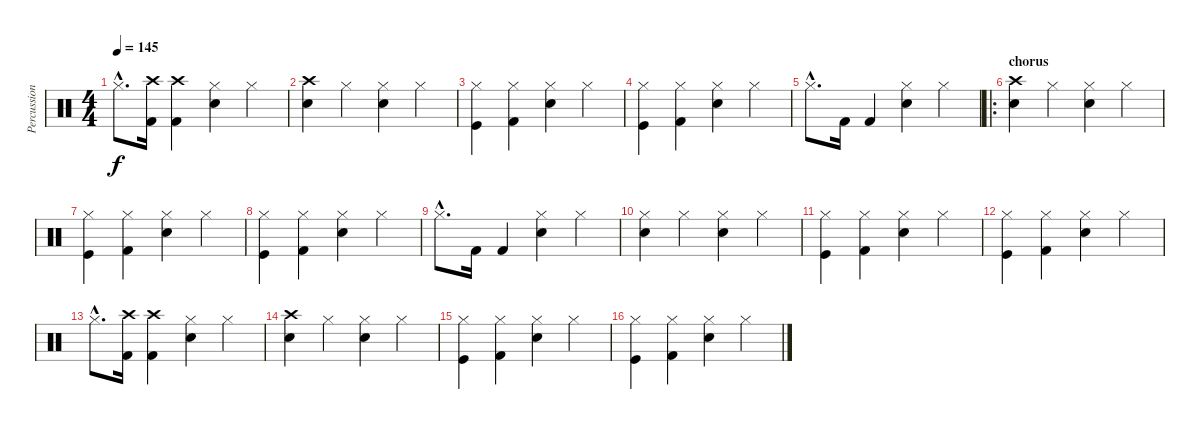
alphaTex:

\track ("Percussion" "Percussion") {instrument percussion}
\staff {score}
\articulation defaults
\ts (4 4)
\tempo 145
\clef neutral
\ks c "Hi-Hat (closed)"{hac}.8{d dy f}
("Crash high (hit)" "Kick (hit) 2").16 ("Crash high (hit)" "Kick (hit) 2").4 ("Hi-Hat (closed)" "Snare (hit) 2").4 "Hi-Hat (closed)".4 |
("Crash high (hit)" "Snare (hit) 2").4 "Hi-Hat (closed)".4 ("Hi-Hat (closed)" "Snare (hit) 2").4 "Hi-Hat (closed)".4 |
("Hi-Hat (closed)" "Kick (hit)").4 ("Hi-Hat (closed)" "Kick (hit) 2").4 ("Hi-Hat (closed)" "Snare (hit) 2").4 "Hi-Hat (closed)".4 |
("Hi-Hat (closed)" "Kick (hit)").4 ("Hi-Hat (closed)" "Kick (hit) 2").4 ("Hi-Hat (closed)" "Snare (hit) 2").4 "Hi-Hat (closed)".4 |
"Hi-Hat (closed)"{hac}.8{d} "Kick (hit) 2".16 "Kick (hit) 2".4 ("Hi-Hat (closed)" "Snare (hit) 2").4 "Hi-Hat (closed)".4 |
\ro
\section ("" "chorus")
("Crash high (hit)" "Snare (hit) 2").4 "Hi-Hat (closed)".4 ("Hi-Hat (closed)" "Snare (hit) 2").4 "Hi-Hat (closed)".4 |
("Hi-Hat (closed)" "Kick (hit)").4 ("Hi-Hat (closed)" "Kick (hit) 2").4 ("Hi-Hat (closed)" "Snare (hit) 2").4 "Hi-Hat (closed)".4 |
("Hi-Hat (closed)" "Kick (hit)").4 ("Hi-Hat (closed)" "Kick (hit) 2").4 ("Hi-Hat (closed)" "Snare (hit) 2").4 "Hi-Hat (closed)".4 |
"Hi-Hat (closed)"{hac}.8{d} "Kick (hit) 2".16 "Kick (hit) 2".4 ("Hi-Hat (closed)" "Snare (hit) 2").4 "Hi-Hat (closed)".4 |
("Hi-Hat (closed)" "Snare (hit) 2").4 "Hi-Hat (closed)".4 ("Hi-Hat (closed)" "Snare (hit) 2").4 "Hi-Hat (closed)".4 |
("Hi-Hat (closed)" "Kick (hit)").4 ("Hi-Hat (closed)" "Kick (hit) 2").4 ("Hi-Hat (closed)" "Snare (hit) 2").4 "Hi-Hat (closed)".4 |
("Hi-Hat (closed)" "Kick (hit)").4 ("Hi-Hat (closed)" "Kick (hit) 2").4 ("Hi-Hat (closed)" "Snare (hit) 2").4 "Hi-Hat (closed)".4 |
"Hi-Hat (closed)"{hac}.8{d} ("Crash high (hit)" "Kick (hit) 2").16 ("Crash high (hit)" "Kick (hit) 2").4 ("Hi-Hat (closed)" "Snare (hit) 2").4 "Hi-Hat (closed)".4 |
("Crash high (hit)" "Snare (hit) 2").4 "Hi-Hat (closed)".4 ("Hi-Hat (closed)" "Snare (hit) 2").4 "Hi-Hat (closed)".4 |
("Hi-Hat (closed)" "Kick (hit)").4 ("Hi-Hat (closed)" "Kick (hit) 2").4 ("Hi-Hat (closed)" "Snare (hit) 2").4 "Hi-Hat (closed)".4 |
("Hi-Hat (closed)" "Kick (hit)").4 ("Hi-Hat (closed)" "Kick (hit) 2").4 ("Hi-Hat (closed)" "Snare (hit) 2").4 "Hi-Hat (closed)".4
